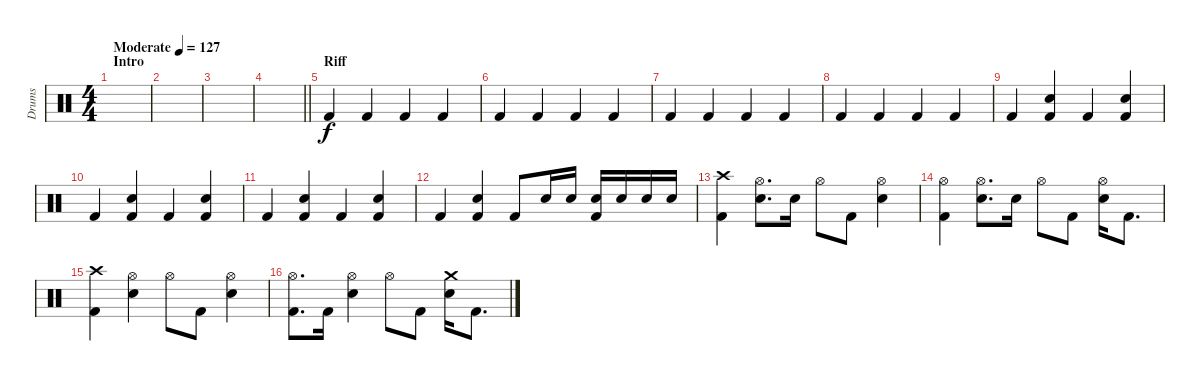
\track ("Drums" "Drums") {instrument percussion}
\staff {score}
\articulation defaults
\ts (4 4)
\section ("" "Intro")
\tempo (127 "Moderate")
\clef neutral
\ks c
|
|
|
\barLineRight lightlight
|
\section ("" "Riff")
"Kick (hit) 2".4 "Kick (hit) 2".4 "Kick (hit) 2".4 "Kick (hit) 2".4 |
"Kick (hit) 2".4 "Kick (hit) 2".4 "Kick (hit) 2".4 "Kick (hit) 2".4 |
"Kick (hit) 2".4 "Kick (hit) 2".4 "Kick (hit) 2".4 "Kick (hit) 2".4 |
"Kick (hit) 2".4 "Kick (hit) 2".4 "Kick (hit) 2".4 "Kick (hit) 2".4 |
"Kick (hit) 2".4 ("Electric Snare (hit)" "Kick (hit) 2").4 "Kick (hit) 2".4 ("Electric Snare (hit)" "Kick (hit) 2").4 |
"Kick (hit) 2".4 ("Electric Snare (hit)" "Kick (hit) 2").4 "Kick (hit) 2".4 ("Electric Snare (hit)" "Kick (hit) 2").4 |
"Kick (hit) 2".4 ("Electric Snare (hit)" "Kick (hit) 2").4 "Kick (hit) 2".4 ("Electric Snare (hit)" "Kick (hit) 2").4 |
"Kick (hit) 2".4 ("Electric Snare (hit)" "Kick (hit) 2").4 "Kick (hit) 2".8 "Electric Snare (hit)".16 "Electric Snare (hit)".16 ("Electric Snare (hit)" "Kick (hit) 2").16 "Electric Snare (hit)".16 "Electric Snare (hit)".16 "Electric Snare (hit)".16 |
("Crash high (hit)" "Kick (hit) 2").4 ("Hi-Hat (open)" "Electric Snare (hit)").8{d} "Electric Snare (hit)".16 "Hi-Hat (open)".8 "Kick (hit) 2".8 ("Hi-Hat (open)" "Electric Snare (hit)").4 |
("Hi-Hat (open)" "Kick (hit) 2").4 ("Hi-Hat (open)" "Electric Snare (hit)").8{d} "Electric Snare (hit)".16 "Hi-Hat (open)".8 "Kick (hit) 2".8 ("Hi-Hat (open)" "Electric Snare (hit)").16 "Kick (hit) 2".8{d} |
("Crash high (hit)" "Kick (hit) 2").4 ("Hi-Hat (open)" "Electric Snare (hit)").4 "Hi-Hat (open)".8 "Kick (hit) 2".8 ("Hi-Hat (open)" "Electric Snare (hit)").4 |
("Hi-Hat (open)" "Kick (hit) 2").8{d} "Kick (hit) 2".16 ("Hi-Hat (open)" "Electric Snare (hit)").4 "Hi-Hat (open)".8 "Kick (hit) 2".8 ("Crash medium (hit)" "Electric Snare (hit)").16 "Kick (hit) 2".8{d}
